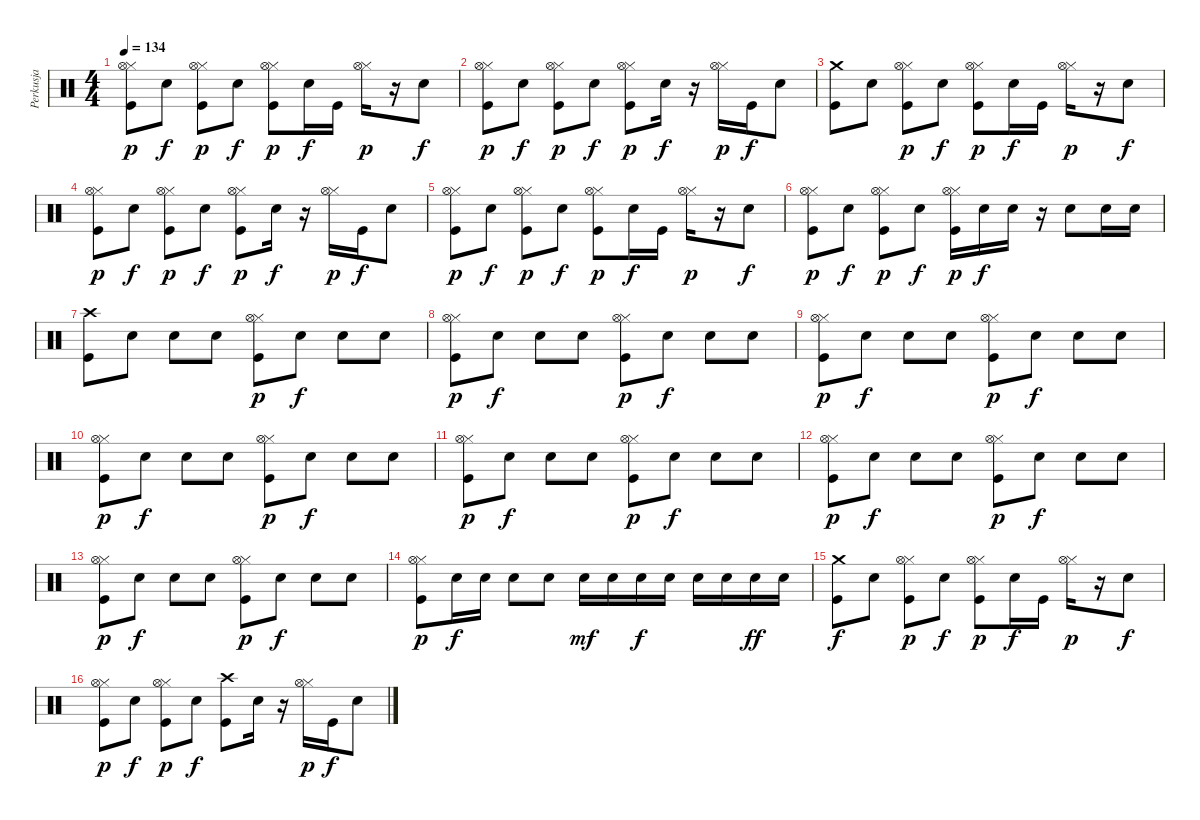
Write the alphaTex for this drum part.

\track ("Perkusja" "Perkusja") {instrument percussion}
\staff {score}
\articulation defaults
\ts (4 4)
\tempo 134
\clef neutral
\ks c
("Hi-Hat (closed)" "Hi-Hat (open)" "Kick (hit)").8{dy p} "Electric Snare (hit)".8{dy f} ("Hi-Hat (closed)" "Hi-Hat (open)" "Kick (hit)").8{dy p} "Electric Snare (hit)".8{dy f} ("Hi-Hat (closed)" "Hi-Hat (open)" "Kick (hit)").8{dy p} "Electric Snare (hit)".16{dy f} "Kick (hit)".16 ("Hi-Hat (closed)" "Hi-Hat (open)").16{dy p} r.16 "Electric Snare (hit)".8{dy f} |
("Hi-Hat (closed)" "Hi-Hat (open)" "Kick (hit)").8{dy p} "Electric Snare (hit)".8{dy f} ("Hi-Hat (closed)" "Hi-Hat (open)" "Kick (hit)").8{dy p} "Electric Snare (hit)".8{dy f} ("Hi-Hat (closed)" "Hi-Hat (open)" "Kick (hit)").8{dy p} "Electric Snare (hit)".16{dy f} r.16 ("Hi-Hat (closed)" "Hi-Hat (open)").16{dy p} "Kick (hit)".16{dy f} "Electric Snare (hit)".8 |
("Crash medium (hit)" "Kick (hit)").8 "Electric Snare (hit)".8 ("Hi-Hat (closed)" "Hi-Hat (open)" "Kick (hit)").8{dy p} "Electric Snare (hit)".8{dy f} ("Hi-Hat (closed)" "Hi-Hat (open)" "Kick (hit)").8{dy p} "Electric Snare (hit)".16{dy f} "Kick (hit)".16 ("Hi-Hat (closed)" "Hi-Hat (open)").16{dy p} r.16 "Electric Snare (hit)".8{dy f} |
("Hi-Hat (closed)" "Hi-Hat (open)" "Kick (hit)").8{dy p} "Electric Snare (hit)".8{dy f} ("Hi-Hat (closed)" "Hi-Hat (open)" "Kick (hit)").8{dy p} "Electric Snare (hit)".8{dy f} ("Hi-Hat (closed)" "Hi-Hat (open)" "Kick (hit)").8{dy p} "Electric Snare (hit)".16{dy f} r.16 ("Hi-Hat (closed)" "Hi-Hat (open)").16{dy p} "Kick (hit)".16{dy f} "Electric Snare (hit)".8 |
("Hi-Hat (closed)" "Hi-Hat (open)" "Kick (hit)").8{dy p} "Electric Snare (hit)".8{dy f} ("Hi-Hat (closed)" "Hi-Hat (open)" "Kick (hit)").8{dy p} "Electric Snare (hit)".8{dy f} ("Hi-Hat (closed)" "Hi-Hat (open)" "Kick (hit)").8{dy p} "Electric Snare (hit)".16{dy f} "Kick (hit)".16 ("Hi-Hat (closed)" "Hi-Hat (open)").16{dy p} r.16 "Electric Snare (hit)".8{dy f} |
("Hi-Hat (closed)" "Hi-Hat (open)" "Kick (hit)").8{dy p} "Electric Snare (hit)".8{dy f} ("Hi-Hat (closed)" "Hi-Hat (open)" "Kick (hit)").8{dy p} "Electric Snare (hit)".8{dy f} ("Hi-Hat (closed)" "Hi-Hat (open)" "Kick (hit)").16{dy p} "Electric Snare (hit)".16{dy f} "Electric Snare (hit)".16 r.16 "Electric Snare (hit)".8 "Electric Snare (hit)".16 "Electric Snare (hit)".16 |
("Crash high (hit)" "Kick (hit)").8 "Electric Snare (hit)".8 "Electric Snare (hit)".8 "Electric Snare (hit)".8 ("Hi-Hat (closed)" "Hi-Hat (open)" "Kick (hit)").8{dy p} "Electric Snare (hit)".8{dy f} "Electric Snare (hit)".8 "Electric Snare (hit)".8 |
("Hi-Hat (closed)" "Hi-Hat (open)" "Kick (hit)").8{dy p} "Electric Snare (hit)".8{dy f} "Electric Snare (hit)".8 "Electric Snare (hit)".8 ("Hi-Hat (closed)" "Hi-Hat (open)" "Kick (hit)").8{dy p} "Electric Snare (hit)".8{dy f} "Electric Snare (hit)".8 "Electric Snare (hit)".8 |
("Hi-Hat (closed)" "Hi-Hat (open)" "Kick (hit)").8{dy p} "Electric Snare (hit)".8{dy f} "Electric Snare (hit)".8 "Electric Snare (hit)".8 ("Hi-Hat (closed)" "Hi-Hat (open)" "Kick (hit)").8{dy p} "Electric Snare (hit)".8{dy f} "Electric Snare (hit)".8 "Electric Snare (hit)".8 |
("Hi-Hat (closed)" "Hi-Hat (open)" "Kick (hit)").8{dy p} "Electric Snare (hit)".8{dy f} "Electric Snare (hit)".8 "Electric Snare (hit)".8 ("Hi-Hat (closed)" "Hi-Hat (open)" "Kick (hit)").8{dy p} "Electric Snare (hit)".8{dy f} "Electric Snare (hit)".8 "Electric Snare (hit)".8 |
("Hi-Hat (closed)" "Hi-Hat (open)" "Kick (hit)").8{dy p} "Electric Snare (hit)".8{dy f} "Electric Snare (hit)".8 "Electric Snare (hit)".8 ("Hi-Hat (closed)" "Hi-Hat (open)" "Kick (hit)").8{dy p} "Electric Snare (hit)".8{dy f} "Electric Snare (hit)".8 "Electric Snare (hit)".8 |
("Hi-Hat (closed)" "Hi-Hat (open)" "Kick (hit)").8{dy p} "Electric Snare (hit)".8{dy f} "Electric Snare (hit)".8 "Electric Snare (hit)".8 ("Hi-Hat (closed)" "Hi-Hat (open)" "Kick (hit)").8{dy p} "Electric Snare (hit)".8{dy f} "Electric Snare (hit)".8 "Electric Snare (hit)".8 |
("Hi-Hat (closed)" "Hi-Hat (open)" "Kick (hit)").8{dy p} "Electric Snare (hit)".8{dy f} "Electric Snare (hit)".8 "Electric Snare (hit)".8 ("Hi-Hat (closed)" "Hi-Hat (open)" "Kick (hit)").8{dy p} "Electric Snare (hit)".8{dy f} "Electric Snare (hit)".8 "Electric Snare (hit)".8 |
("Hi-Hat (closed)" "Hi-Hat (open)" "Kick (hit)").8{dy p} "Electric Snare (hit)".16{dy f} "Electric Snare (hit)".16 "Electric Snare (hit)".8 "Electric Snare (hit)".8 "Electric Snare (hit)".16{dy mf} "Electric Snare (hit)".16 "Electric Snare (hit)".16{dy f} "Electric Snare (hit)".16 "Electric Snare (hit)".16 "Electric Snare (hit)".16 "Electric Snare (hit)".16{dy ff} "Electric Snare (hit)".16 |
("Crash medium (hit)" "Kick (hit)").8{dy f} "Electric Snare (hit)".8 ("Hi-Hat (closed)" "Hi-Hat (open)" "Kick (hit)").8{dy p} "Electric Snare (hit)".8{dy f} ("Hi-Hat (closed)" "Hi-Hat (open)" "Kick (hit)").8{dy p} "Electric Snare (hit)".16{dy f} "Kick (hit)".16 ("Hi-Hat (closed)" "Hi-Hat (open)").16{dy p} r.16 "Electric Snare (hit)".8{dy f} |
("Hi-Hat (closed)" "Hi-Hat (open)" "Kick (hit)").8{dy p} "Electric Snare (hit)".8{dy f} ("Hi-Hat (closed)" "Hi-Hat (open)" "Kick (hit)").8{dy p} "Electric Snare (hit)".8{dy f} ("Crash high (hit)" "Kick (hit)").8 "Electric Snare (hit)".16 r.16 ("Hi-Hat (closed)" "Hi-Hat (open)").16{dy p} "Kick (hit)".16{dy f} "Electric Snare (hit)".8
